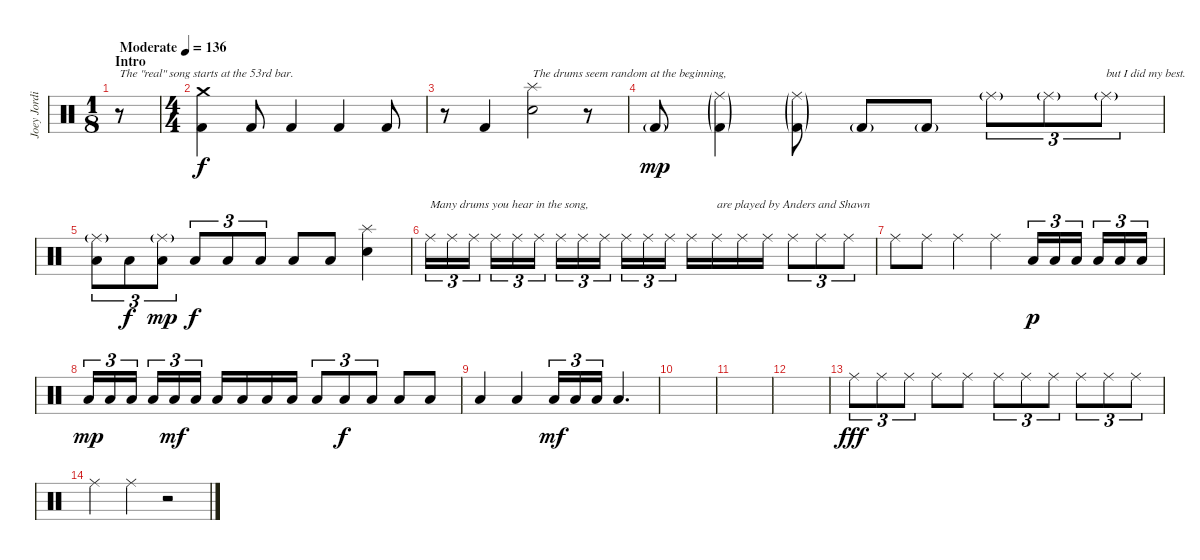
\track ("Joey Jordison" "Joey Jordi") {instrument percussion}
\staff {score}
\articulation defaults
\ts (1 8)
\section ("" "Intro")
\tempo (136 "Moderate")
\clef neutral
\ks c
r.8{txt "The \"real\" song starts at the 53rd bar." dy f} |
\ts (4 4)
("Crash medium (hit)" "Kick (hit) 2").4 "Kick (hit) 2".8 "Kick (hit) 2".4 "Kick (hit) 2".4 "Kick (hit) 2".8 |
r.8 "Kick (hit) 2".4 ("Splash (hit)" "Electric Snare (hit)").2{txt "The drums seem random at the beginning, "} r.8 |
"Kick (hit) 2"{g}.8{dy mp} ("Ride (middle)"{g} "Kick (hit) 2"{g}).4 ("Ride (middle)"{g} "Kick (hit) 2"{g}).8 "Kick (hit) 2"{g}.8 "Kick (hit) 2"{g}.8 "Ride (middle)"{g}.8{tu (3 2)} "Ride (middle)"{g}.8{tu (3 2)} "Ride (middle)"{g}.8{tu (3 2) txt "but I did my best."} |
("Ride (middle)"{g} "Low Floor Tom (hit)").8{tu (3 2)} "Low Floor Tom (hit)".8{tu (3 2) dy f} ("Ride (middle)"{g} "Low Floor Tom (hit)").8{tu (3 2) dy mp} "Low Floor Tom (hit)".8{tu (3 2) dy f} "Low Floor Tom (hit)".8{tu (3 2)} "Low Floor Tom (hit)".8{tu (3 2)} "Low Floor Tom (hit)".8 "Low Floor Tom (hit)".8 ("Splash (hit)" "Snare (hit) 2").4 |
"Ride (middle)".16{tu (3 2) txt "Many drums you hear in the song,"} "Ride (middle)".16{tu (3 2)} "Ride (middle)".16{tu (3 2) beam splitsecondary} "Ride (middle)".16{tu (3 2)} "Ride (middle)".16{tu (3 2)} "Ride (middle)".16{tu (3 2)} "Ride (middle)".16{tu (3 2)} "Ride (middle)".16{tu (3 2)} "Ride (middle)".16{tu (3 2) beam splitsecondary} "Ride (middle)".16{tu (3 2)} "Ride (middle)".16{tu (3 2)} "Ride (middle)".16{tu (3 2)} "Ride (middle)".16 "Ride (middle)".16{txt "are played by Anders and Shawn"} "Ride (middle)".16 "Ride (middle)".16 "Ride (middle)".8{tu (3 2)} "Ride (middle)".8{tu (3 2)} "Ride (middle)".8{tu (3 2)} |
"Ride (middle)".8 "Ride (middle)".8 "Ride (middle)".4 "Ride (middle)".4 "Low Floor Tom (hit)".16{tu (3 2) dy p} "Low Floor Tom (hit)".16{tu (3 2)} "Low Floor Tom (hit)".16{tu (3 2) beam splitsecondary} "Low Floor Tom (hit)".16{tu (3 2)} "Low Floor Tom (hit)".16{tu (3 2)} "Low Floor Tom (hit)".16{tu (3 2)} |
"Low Floor Tom (hit)".16{tu (3 2) dy mp} "Low Floor Tom (hit)".16{tu (3 2)} "Low Floor Tom (hit)".16{tu (3 2) beam splitsecondary} "Low Floor Tom (hit)".16{tu (3 2)} "Low Floor Tom (hit)".16{tu (3 2) dy mf} "Low Floor Tom (hit)".16{tu (3 2)} "Low Floor Tom (hit)".16 "Low Floor Tom (hit)".16 "Low Floor Tom (hit)".16 "Low Floor Tom (hit)".16 "Low Floor Tom (hit)".8{tu (3 2)} "Low Floor Tom (hit)".8{tu (3 2) dy f} "Low Floor Tom (hit)".8{tu (3 2)} "Low Floor Tom (hit)".8 "Low Floor Tom (hit)".8 |
"Low Floor Tom (hit)".4 "Low Floor Tom (hit)".4 "Low Floor Tom (hit)".16{tu (3 2) dy mf} "Low Floor Tom (hit)".16{tu (3 2)} "Low Floor Tom (hit)".16{tu (3 2)} "Low Floor Tom (hit)".4{d} |
|
|
|
"Ride (middle)".8{tu (3 2) dy fff} "Ride (middle)".8{tu (3 2)} "Ride (middle)".8{tu (3 2)} "Ride (middle)".8 "Ride (middle)".8 "Ride (middle)".8{tu (3 2)} "Ride (middle)".8{tu (3 2)} "Ride (middle)".8{tu (3 2)} "Ride (middle)".8{tu (3 2)} "Ride (middle)".8{tu (3 2)} "Ride (middle)".8{tu (3 2)} |
"Ride (middle)".4 "Ride (middle)".4 r.2
